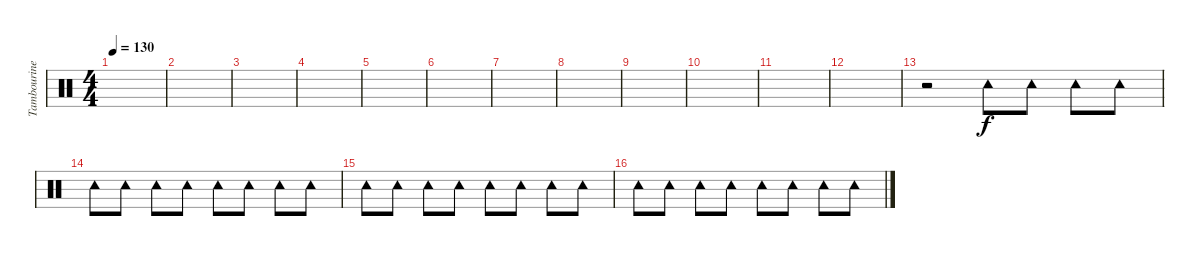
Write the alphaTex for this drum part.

\track ("Tambourine" "Tambourine") {instrument percussion}
\staff {score}
\articulation defaults
\ts (4 4)
\tempo 130
\clef neutral
\ks c
|
|
|
|
|
|
|
|
|
|
|
|
r.2 "Tambourine (hit)".8 "Tambourine (hit)".8 "Tambourine (hit)".8 "Tambourine (hit)".8 |
"Tambourine (hit)".8 "Tambourine (hit)".8 "Tambourine (hit)".8 "Tambourine (hit)".8 "Tambourine (hit)".8 "Tambourine (hit)".8 "Tambourine (hit)".8 "Tambourine (hit)".8 |
"Tambourine (hit)".8 "Tambourine (hit)".8 "Tambourine (hit)".8 "Tambourine (hit)".8 "Tambourine (hit)".8 "Tambourine (hit)".8 "Tambourine (hit)".8 "Tambourine (hit)".8 |
"Tambourine (hit)".8 "Tambourine (hit)".8 "Tambourine (hit)".8 "Tambourine (hit)".8 "Tambourine (hit)".8 "Tambourine (hit)".8 "Tambourine (hit)".8 "Tambourine (hit)".8
